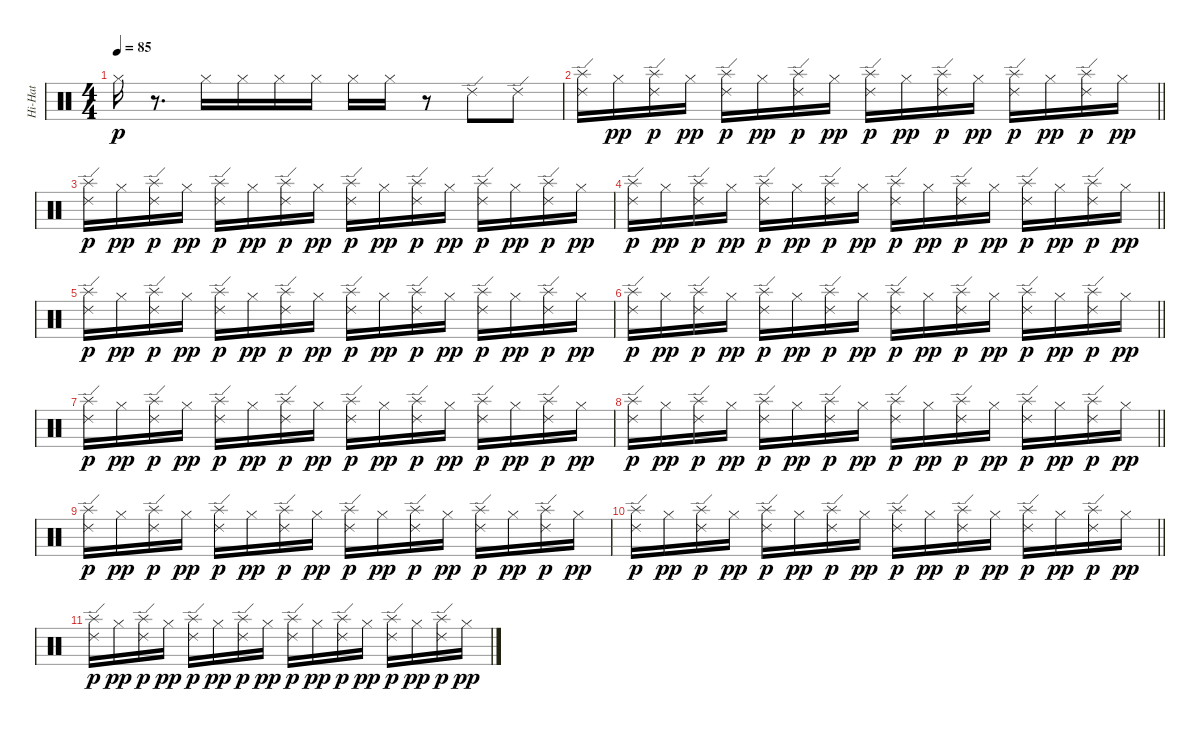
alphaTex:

\track ("Hi-Hat" "Hi-Hat") {instrument percussion}
\staff {score}
\articulation defaults
\ts (4 4)
\tempo 85
\clef neutral
\ks c "Hi-Hat (closed)".16{dy p}
r.8{d} "Hi-Hat (closed)".16 "Hi-Hat (closed)".16 "Hi-Hat (closed)".16 "Hi-Hat (closed)".16 "Hi-Hat (closed)".16 "Hi-Hat (closed)".16 r.8 "Ride (edge) 2".8 "Ride (edge) 2".8 |
\barLineRight lightlight
("Ride (edge) 2" "Splash (hit)").16 "Hi-Hat (closed)".16{dy pp} ("Ride (edge) 2" "Splash (hit)").16{dy p} "Hi-Hat (closed)".16{dy pp} ("Ride (edge) 2" "Splash (hit)").16{dy p} "Hi-Hat (closed)".16{dy pp} ("Ride (edge) 2" "Splash (hit)").16{dy p} "Hi-Hat (closed)".16{dy pp} ("Ride (edge) 2" "Splash (hit)").16{dy p} "Hi-Hat (closed)".16{dy pp} ("Ride (edge) 2" "Splash (hit)").16{dy p} "Hi-Hat (closed)".16{dy pp} ("Ride (edge) 2" "Splash (hit)").16{dy p} "Hi-Hat (closed)".16{dy pp} ("Ride (edge) 2" "Splash (hit)").16{dy p} "Hi-Hat (closed)".16{dy pp} |
("Ride (edge) 2" "Splash (hit)").16{dy p} "Hi-Hat (closed)".16{dy pp} ("Ride (edge) 2" "Splash (hit)").16{dy p} "Hi-Hat (closed)".16{dy pp} ("Ride (edge) 2" "Splash (hit)").16{dy p} "Hi-Hat (closed)".16{dy pp} ("Ride (edge) 2" "Splash (hit)").16{dy p} "Hi-Hat (closed)".16{dy pp} ("Ride (edge) 2" "Splash (hit)").16{dy p} "Hi-Hat (closed)".16{dy pp} ("Ride (edge) 2" "Splash (hit)").16{dy p} "Hi-Hat (closed)".16{dy pp} ("Ride (edge) 2" "Splash (hit)").16{dy p} "Hi-Hat (closed)".16{dy pp} ("Ride (edge) 2" "Splash (hit)").16{dy p} "Hi-Hat (closed)".16{dy pp} |
\barLineRight lightlight
("Ride (edge) 2" "Splash (hit)").16{dy p} "Hi-Hat (closed)".16{dy pp} ("Ride (edge) 2" "Splash (hit)").16{dy p} "Hi-Hat (closed)".16{dy pp} ("Ride (edge) 2" "Splash (hit)").16{dy p} "Hi-Hat (closed)".16{dy pp} ("Ride (edge) 2" "Splash (hit)").16{dy p} "Hi-Hat (closed)".16{dy pp} ("Ride (edge) 2" "Splash (hit)").16{dy p} "Hi-Hat (closed)".16{dy pp} ("Ride (edge) 2" "Splash (hit)").16{dy p} "Hi-Hat (closed)".16{dy pp} ("Ride (edge) 2" "Splash (hit)").16{dy p} "Hi-Hat (closed)".16{dy pp} ("Ride (edge) 2" "Splash (hit)").16{dy p} "Hi-Hat (closed)".16{dy pp} |
("Ride (edge) 2" "Splash (hit)").16{dy p} "Hi-Hat (closed)".16{dy pp} ("Ride (edge) 2" "Splash (hit)").16{dy p} "Hi-Hat (closed)".16{dy pp} ("Ride (edge) 2" "Splash (hit)").16{dy p} "Hi-Hat (closed)".16{dy pp} ("Ride (edge) 2" "Splash (hit)").16{dy p} "Hi-Hat (closed)".16{dy pp} ("Ride (edge) 2" "Splash (hit)").16{dy p} "Hi-Hat (closed)".16{dy pp} ("Ride (edge) 2" "Splash (hit)").16{dy p} "Hi-Hat (closed)".16{dy pp} ("Ride (edge) 2" "Splash (hit)").16{dy p} "Hi-Hat (closed)".16{dy pp} ("Ride (edge) 2" "Splash (hit)").16{dy p} "Hi-Hat (closed)".16{dy pp} |
\barLineRight lightlight
("Ride (edge) 2" "Splash (hit)").16{dy p} "Hi-Hat (closed)".16{dy pp} ("Ride (edge) 2" "Splash (hit)").16{dy p} "Hi-Hat (closed)".16{dy pp} ("Ride (edge) 2" "Splash (hit)").16{dy p} "Hi-Hat (closed)".16{dy pp} ("Ride (edge) 2" "Splash (hit)").16{dy p} "Hi-Hat (closed)".16{dy pp} ("Ride (edge) 2" "Splash (hit)").16{dy p} "Hi-Hat (closed)".16{dy pp} ("Ride (edge) 2" "Splash (hit)").16{dy p} "Hi-Hat (closed)".16{dy pp} ("Ride (edge) 2" "Splash (hit)").16{dy p} "Hi-Hat (closed)".16{dy pp} ("Ride (edge) 2" "Splash (hit)").16{dy p} "Hi-Hat (closed)".16{dy pp} |
("Ride (edge) 2" "Splash (hit)").16{dy p} "Hi-Hat (closed)".16{dy pp} ("Ride (edge) 2" "Splash (hit)").16{dy p} "Hi-Hat (closed)".16{dy pp} ("Ride (edge) 2" "Splash (hit)").16{dy p} "Hi-Hat (closed)".16{dy pp} ("Ride (edge) 2" "Splash (hit)").16{dy p} "Hi-Hat (closed)".16{dy pp} ("Ride (edge) 2" "Splash (hit)").16{dy p} "Hi-Hat (closed)".16{dy pp} ("Ride (edge) 2" "Splash (hit)").16{dy p} "Hi-Hat (closed)".16{dy pp} ("Ride (edge) 2" "Splash (hit)").16{dy p} "Hi-Hat (closed)".16{dy pp} ("Ride (edge) 2" "Splash (hit)").16{dy p} "Hi-Hat (closed)".16{dy pp} |
\barLineRight lightlight
("Ride (edge) 2" "Splash (hit)").16{dy p} "Hi-Hat (closed)".16{dy pp} ("Ride (edge) 2" "Splash (hit)").16{dy p} "Hi-Hat (closed)".16{dy pp} ("Ride (edge) 2" "Splash (hit)").16{dy p} "Hi-Hat (closed)".16{dy pp} ("Ride (edge) 2" "Splash (hit)").16{dy p} "Hi-Hat (closed)".16{dy pp} ("Ride (edge) 2" "Splash (hit)").16{dy p} "Hi-Hat (closed)".16{dy pp} ("Ride (edge) 2" "Splash (hit)").16{dy p} "Hi-Hat (closed)".16{dy pp} ("Ride (edge) 2" "Splash (hit)").16{dy p} "Hi-Hat (closed)".16{dy pp} ("Ride (edge) 2" "Splash (hit)").16{dy p} "Hi-Hat (closed)".16{dy pp} |
("Ride (edge) 2" "Splash (hit)").16{dy p} "Hi-Hat (closed)".16{dy pp} ("Ride (edge) 2" "Splash (hit)").16{dy p} "Hi-Hat (closed)".16{dy pp} ("Ride (edge) 2" "Splash (hit)").16{dy p} "Hi-Hat (closed)".16{dy pp} ("Ride (edge) 2" "Splash (hit)").16{dy p} "Hi-Hat (closed)".16{dy pp} ("Ride (edge) 2" "Splash (hit)").16{dy p} "Hi-Hat (closed)".16{dy pp} ("Ride (edge) 2" "Splash (hit)").16{dy p} "Hi-Hat (closed)".16{dy pp} ("Ride (edge) 2" "Splash (hit)").16{dy p} "Hi-Hat (closed)".16{dy pp} ("Ride (edge) 2" "Splash (hit)").16{dy p} "Hi-Hat (closed)".16{dy pp} |
\barLineRight lightlight
("Ride (edge) 2" "Splash (hit)").16{dy p} "Hi-Hat (closed)".16{dy pp} ("Ride (edge) 2" "Splash (hit)").16{dy p} "Hi-Hat (closed)".16{dy pp} ("Ride (edge) 2" "Splash (hit)").16{dy p} "Hi-Hat (closed)".16{dy pp} ("Ride (edge) 2" "Splash (hit)").16{dy p} "Hi-Hat (closed)".16{dy pp} ("Ride (edge) 2" "Splash (hit)").16{dy p} "Hi-Hat (closed)".16{dy pp} ("Ride (edge) 2" "Splash (hit)").16{dy p} "Hi-Hat (closed)".16{dy pp} ("Ride (edge) 2" "Splash (hit)").16{dy p} "Hi-Hat (closed)".16{dy pp} ("Ride (edge) 2" "Splash (hit)").16{dy p} "Hi-Hat (closed)".16{dy pp} |
("Ride (edge) 2" "Splash (hit)").16{dy p} "Hi-Hat (closed)".16{dy pp} ("Ride (edge) 2" "Splash (hit)").16{dy p} "Hi-Hat (closed)".16{dy pp} ("Ride (edge) 2" "Splash (hit)").16{dy p} "Hi-Hat (closed)".16{dy pp} ("Ride (edge) 2" "Splash (hit)").16{dy p} "Hi-Hat (closed)".16{dy pp} ("Ride (edge) 2" "Splash (hit)").16{dy p} "Hi-Hat (closed)".16{dy pp} ("Ride (edge) 2" "Splash (hit)").16{dy p} "Hi-Hat (closed)".16{dy pp} ("Ride (edge) 2" "Splash (hit)").16{dy p} "Hi-Hat (closed)".16{dy pp} ("Ride (edge) 2" "Splash (hit)").16{dy p} "Hi-Hat (closed)".16{dy pp}
